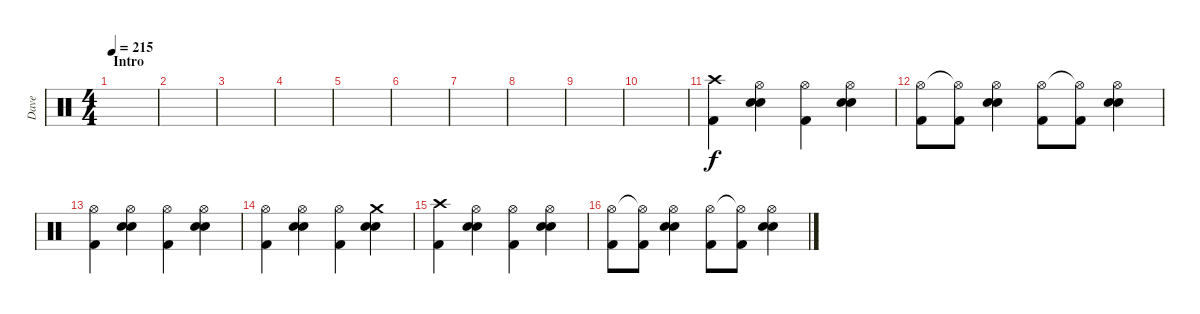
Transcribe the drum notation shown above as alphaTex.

\track ("Dave" "Dave") {instrument percussion}
\staff {score}
\articulation defaults
\ts (4 4)
\section ("" "Intro")
\tempo 215
\clef neutral
\ks c
|
|
|
|
|
|
|
|
|
|
("Crash high (hit)" "Kick (hit) 2").4 ("Hi-Hat (open)" "Electric Snare (hit)" "Electric Snare (hit)").4 ("Hi-Hat (open)" "Kick (hit) 2").4 ("Hi-Hat (open)" "Electric Snare (hit)" "Electric Snare (hit)").4 |
("Hi-Hat (open)" "Kick (hit) 2").8 ("Hi-Hat (open)"{t} "Kick (hit) 2").8 ("Hi-Hat (open)" "Electric Snare (hit)" "Electric Snare (hit)").4 ("Hi-Hat (open)" "Kick (hit) 2").8 ("Hi-Hat (open)"{t} "Kick (hit) 2").8 ("Hi-Hat (open)" "Electric Snare (hit)" "Electric Snare (hit)").4 |
("Hi-Hat (open)" "Kick (hit) 2").4 ("Hi-Hat (open)" "Electric Snare (hit)" "Electric Snare (hit)").4 ("Hi-Hat (open)" "Kick (hit) 2").4 ("Hi-Hat (open)" "Electric Snare (hit)" "Electric Snare (hit)").4 |
("Hi-Hat (open)" "Kick (hit) 2").4 ("Hi-Hat (open)" "Electric Snare (hit)" "Electric Snare (hit)").4 ("Hi-Hat (open)" "Kick (hit) 2").4 ("Crash medium (hit)" "Electric Snare (hit)" "Electric Snare (hit)").4 |
("Crash high (hit)" "Kick (hit) 2").4 ("Hi-Hat (open)" "Electric Snare (hit)" "Electric Snare (hit)").4 ("Hi-Hat (open)" "Kick (hit) 2").4 ("Hi-Hat (open)" "Electric Snare (hit)" "Electric Snare (hit)").4 |
("Hi-Hat (open)" "Kick (hit) 2").8 ("Hi-Hat (open)"{t} "Kick (hit) 2").8 ("Hi-Hat (open)" "Electric Snare (hit)" "Electric Snare (hit)").4 ("Hi-Hat (open)" "Kick (hit) 2").8 ("Hi-Hat (open)"{t} "Kick (hit) 2").8 ("Hi-Hat (open)" "Electric Snare (hit)" "Electric Snare (hit)").4
